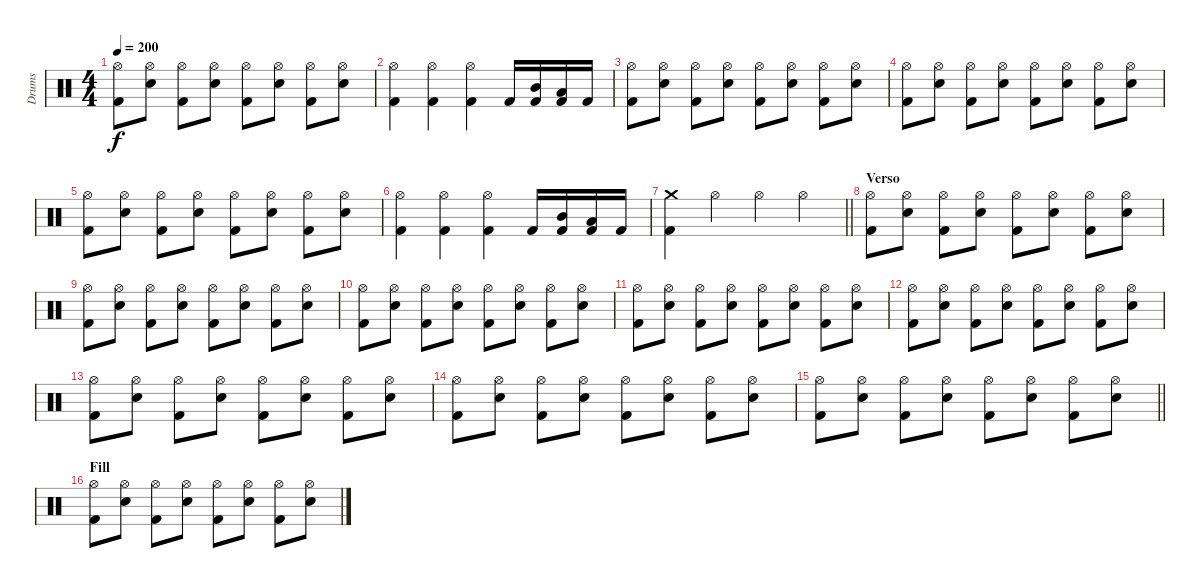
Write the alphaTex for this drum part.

\track ("Drums" "Drums") {instrument percussion}
\staff {score}
\articulation defaults
\ts (4 4)
\tempo 200
\clef neutral
\ks c
("Hi-Hat (open)" "Kick (hit) 2").8{dy f} ("Hi-Hat (open)" "Electric Snare (hit)").8 ("Hi-Hat (open)" "Kick (hit) 2").8 ("Hi-Hat (open)" "Electric Snare (hit)").8 ("Hi-Hat (open)" "Kick (hit) 2").8 ("Hi-Hat (open)" "Electric Snare (hit)").8 ("Hi-Hat (open)" "Kick (hit) 2").8 ("Hi-Hat (open)" "Electric Snare (hit)").8 |
("Hi-Hat (open)" "Kick (hit) 2").4 ("Hi-Hat (open)" "Kick (hit) 2").4 ("Hi-Hat (open)" "Kick (hit) 2").4 "Kick (hit) 2".16 ("Mid Tom (hit)" "Kick (hit) 2").16 ("Low Tom (hit)" "Kick (hit) 2").16 "Kick (hit) 2".16 |
("Hi-Hat (open)" "Kick (hit) 2").8 ("Hi-Hat (open)" "Electric Snare (hit)").8 ("Hi-Hat (open)" "Kick (hit) 2").8 ("Hi-Hat (open)" "Electric Snare (hit)").8 ("Hi-Hat (open)" "Kick (hit) 2").8 ("Hi-Hat (open)" "Electric Snare (hit)").8 ("Hi-Hat (open)" "Kick (hit) 2").8 ("Hi-Hat (open)" "Electric Snare (hit)").8 |
("Hi-Hat (open)" "Kick (hit) 2").8 ("Hi-Hat (open)" "Electric Snare (hit)").8 ("Hi-Hat (open)" "Kick (hit) 2").8 ("Hi-Hat (open)" "Electric Snare (hit)").8 ("Hi-Hat (open)" "Kick (hit) 2").8 ("Hi-Hat (open)" "Electric Snare (hit)").8 ("Hi-Hat (open)" "Kick (hit) 2").8 ("Hi-Hat (open)" "Electric Snare (hit)").8 |
("Hi-Hat (open)" "Kick (hit) 2").8 ("Hi-Hat (open)" "Electric Snare (hit)").8 ("Hi-Hat (open)" "Kick (hit) 2").8 ("Hi-Hat (open)" "Electric Snare (hit)").8 ("Hi-Hat (open)" "Kick (hit) 2").8 ("Hi-Hat (open)" "Electric Snare (hit)").8 ("Hi-Hat (open)" "Kick (hit) 2").8 ("Hi-Hat (open)" "Electric Snare (hit)").8 |
("Hi-Hat (open)" "Kick (hit) 2").4 ("Hi-Hat (open)" "Kick (hit) 2").4 ("Hi-Hat (open)" "Kick (hit) 2").4 "Kick (hit) 2".16 ("Mid Tom (hit)" "Kick (hit) 2").16 ("Low Tom (hit)" "Kick (hit) 2").16 "Kick (hit) 2".16 |
\barLineRight lightlight
("Crash medium (hit)" "Kick (hit) 2").4 "Hi-Hat (open)".4 "Hi-Hat (open)".4 "Hi-Hat (open)".4 |
\section ("" "Verso")
("Hi-Hat (open)" "Kick (hit) 2").8 ("Hi-Hat (open)" "Electric Snare (hit)").8 ("Hi-Hat (open)" "Kick (hit) 2").8 ("Hi-Hat (open)" "Electric Snare (hit)").8 ("Hi-Hat (open)" "Kick (hit) 2").8 ("Hi-Hat (open)" "Electric Snare (hit)").8 ("Hi-Hat (open)" "Kick (hit) 2").8 ("Hi-Hat (open)" "Electric Snare (hit)").8 |
("Hi-Hat (open)" "Kick (hit) 2").8 ("Hi-Hat (open)" "Electric Snare (hit)").8 ("Hi-Hat (open)" "Kick (hit) 2").8 ("Hi-Hat (open)" "Electric Snare (hit)").8 ("Hi-Hat (open)" "Kick (hit) 2").8 ("Hi-Hat (open)" "Electric Snare (hit)").8 ("Hi-Hat (open)" "Kick (hit) 2").8 ("Hi-Hat (open)" "Electric Snare (hit)").8 |
("Hi-Hat (open)" "Kick (hit) 2").8 ("Hi-Hat (open)" "Electric Snare (hit)").8 ("Hi-Hat (open)" "Kick (hit) 2").8 ("Hi-Hat (open)" "Electric Snare (hit)").8 ("Hi-Hat (open)" "Kick (hit) 2").8 ("Hi-Hat (open)" "Electric Snare (hit)").8 ("Hi-Hat (open)" "Kick (hit) 2").8 ("Hi-Hat (open)" "Electric Snare (hit)").8 |
("Hi-Hat (open)" "Kick (hit) 2").8 ("Hi-Hat (open)" "Electric Snare (hit)").8 ("Hi-Hat (open)" "Kick (hit) 2").8 ("Hi-Hat (open)" "Electric Snare (hit)").8 ("Hi-Hat (open)" "Kick (hit) 2").8 ("Hi-Hat (open)" "Electric Snare (hit)").8 ("Hi-Hat (open)" "Kick (hit) 2").8 ("Hi-Hat (open)" "Electric Snare (hit)").8 |
("Hi-Hat (open)" "Kick (hit) 2").8 ("Hi-Hat (open)" "Electric Snare (hit)").8 ("Hi-Hat (open)" "Kick (hit) 2").8 ("Hi-Hat (open)" "Electric Snare (hit)").8 ("Hi-Hat (open)" "Kick (hit) 2").8 ("Hi-Hat (open)" "Electric Snare (hit)").8 ("Hi-Hat (open)" "Kick (hit) 2").8 ("Hi-Hat (open)" "Electric Snare (hit)").8 |
("Hi-Hat (open)" "Kick (hit) 2").8 ("Hi-Hat (open)" "Electric Snare (hit)").8 ("Hi-Hat (open)" "Kick (hit) 2").8 ("Hi-Hat (open)" "Electric Snare (hit)").8 ("Hi-Hat (open)" "Kick (hit) 2").8 ("Hi-Hat (open)" "Electric Snare (hit)").8 ("Hi-Hat (open)" "Kick (hit) 2").8 ("Hi-Hat (open)" "Electric Snare (hit)").8 |
("Hi-Hat (open)" "Kick (hit) 2").8 ("Hi-Hat (open)" "Electric Snare (hit)").8 ("Hi-Hat (open)" "Kick (hit) 2").8 ("Hi-Hat (open)" "Electric Snare (hit)").8 ("Hi-Hat (open)" "Kick (hit) 2").8 ("Hi-Hat (open)" "Electric Snare (hit)").8 ("Hi-Hat (open)" "Kick (hit) 2").8 ("Hi-Hat (open)" "Electric Snare (hit)").8 |
\barLineRight lightlight
("Hi-Hat (open)" "Kick (hit) 2").8 ("Hi-Hat (open)" "Electric Snare (hit)").8 ("Hi-Hat (open)" "Kick (hit) 2").8 ("Hi-Hat (open)" "Electric Snare (hit)").8 ("Hi-Hat (open)" "Kick (hit) 2").8 ("Hi-Hat (open)" "Electric Snare (hit)").8 ("Hi-Hat (open)" "Kick (hit) 2").8 ("Hi-Hat (open)" "Electric Snare (hit)").8 |
\section ("" "Fill")
("Hi-Hat (open)" "Kick (hit) 2").8 ("Hi-Hat (open)" "Electric Snare (hit)").8 ("Hi-Hat (open)" "Kick (hit) 2").8 ("Hi-Hat (open)" "Electric Snare (hit)").8 ("Hi-Hat (open)" "Kick (hit) 2").8 ("Hi-Hat (open)" "Electric Snare (hit)").8 ("Hi-Hat (open)" "Kick (hit) 2").8 ("Hi-Hat (open)" "Electric Snare (hit)").8
